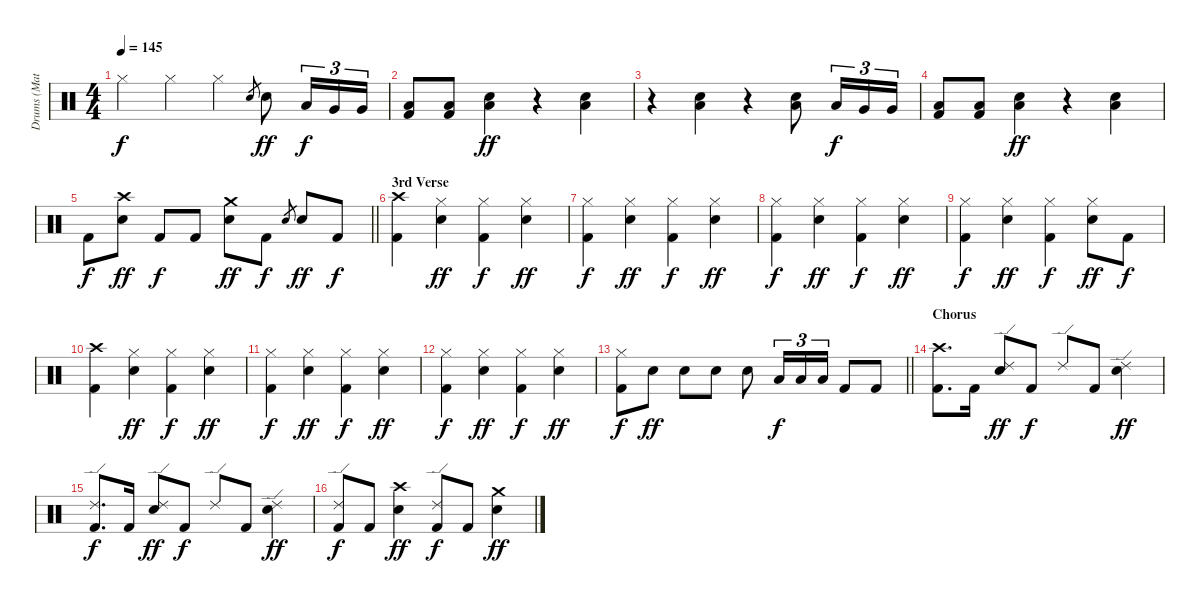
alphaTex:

\track ("Drums (Matt)" "Drums (Mat") {instrument percussion}
\staff {score}
\articulation defaults
\ts (4 4)
\tempo 145
\clef neutral
\ks c "Hi-Hat (closed)".4{dy f} "Hi-Hat (closed)".4 "Hi-Hat (closed)".4 "Snare (hit) 2".8{gr} "Snare (hit) 2".8{dy ff} "Low Tom (hit)".16{tu (3 2) dy f} "Very Low Tom (hit)".16{tu (3 2)} "Very Low Tom (hit)".16{tu (3 2)}
|
("Low Floor Tom (hit)" "Kick (hit) 2").8 ("Low Floor Tom (hit)" "Kick (hit) 2").8 ("Low Floor Tom (hit)" "Snare (hit) 2").4{dy ff} r.4 ("Low Floor Tom (hit)" "Snare (hit) 2").4 |
r.4 ("Low Floor Tom (hit)" "Snare (hit) 2").4 r.4 ("Low Floor Tom (hit)" "Snare (hit) 2").8 "Low Tom (hit)".16{tu (3 2) dy f} "Very Low Tom (hit)".16{tu (3 2)} "Very Low Tom (hit)".16{tu (3 2)} |
("Low Floor Tom (hit)" "Kick (hit) 2").8 ("Low Floor Tom (hit)" "Kick (hit) 2").8 ("Low Floor Tom (hit)" "Snare (hit) 2").4{dy ff} r.4 ("Low Floor Tom (hit)" "Snare (hit) 2").4 |
\barLineRight lightlight "Kick (hit) 2".8{dy f}
("Crash high (hit)" "Snare (hit) 2").8{dy ff} "Kick (hit) 2".8{dy f} "Kick (hit) 2".8 ("Crash medium (hit)" "Snare (hit) 2").8{dy ff} "Kick (hit) 2".8{dy f} "Snare (hit) 2".8{gr} "Snare (hit) 2".8{dy ff} "Kick (hit) 2".8{dy f} |
\section ("" "3rd Verse")
("Crash high (hit)" "Kick (hit) 2").4 ("Hi-Hat (closed)" "Snare (hit) 2").4{dy ff} ("Hi-Hat (closed)" "Kick (hit) 2").4{dy f} ("Hi-Hat (closed)" "Snare (hit) 2").4{dy ff} |
("Hi-Hat (closed)" "Kick (hit) 2").4{dy f} ("Hi-Hat (closed)" "Snare (hit) 2").4{dy ff} ("Hi-Hat (closed)" "Kick (hit) 2").4{dy f} ("Hi-Hat (closed)" "Snare (hit) 2").4{dy ff} |
("Hi-Hat (closed)" "Kick (hit) 2").4{dy f} ("Hi-Hat (closed)" "Snare (hit) 2").4{dy ff} ("Hi-Hat (closed)" "Kick (hit) 2").4{dy f} ("Hi-Hat (closed)" "Snare (hit) 2").4{dy ff} |
("Hi-Hat (closed)" "Kick (hit) 2").4{dy f} ("Hi-Hat (closed)" "Snare (hit) 2").4{dy ff} ("Hi-Hat (closed)" "Kick (hit) 2").4{dy f} ("Hi-Hat (closed)" "Snare (hit) 2").8{dy ff} "Kick (hit) 2".8{dy f} |
("Crash high (hit)" "Kick (hit) 2").4 ("Hi-Hat (closed)" "Snare (hit) 2").4{dy ff} ("Hi-Hat (closed)" "Kick (hit) 2").4{dy f} ("Hi-Hat (closed)" "Snare (hit) 2").4{dy ff} |
("Hi-Hat (closed)" "Kick (hit) 2").4{dy f} ("Hi-Hat (closed)" "Snare (hit) 2").4{dy ff} ("Hi-Hat (closed)" "Kick (hit) 2").4{dy f} ("Hi-Hat (closed)" "Snare (hit) 2").4{dy ff} |
("Hi-Hat (closed)" "Kick (hit) 2").4{dy f} ("Hi-Hat (closed)" "Snare (hit) 2").4{dy ff} ("Hi-Hat (closed)" "Kick (hit) 2").4{dy f} ("Hi-Hat (closed)" "Snare (hit) 2").4{dy ff} |
\barLineRight lightlight
("Hi-Hat (closed)" "Kick (hit) 2").8{dy f} "Snare (hit) 2".8{dy ff} "Snare (hit) 2".8 "Snare (hit) 2".8 "Snare (hit) 2".8 "Low Tom (hit)".16{tu (3 2) dy f} "Low Tom (hit)".16{tu (3 2)} "Low Tom (hit)".16{tu (3 2)} "Kick (hit) 2".8 "Kick (hit) 2".8 |
\section ("" "Chorus")
("Crash high (hit)" "Kick (hit) 2").8{d} "Kick (hit) 2".16 ("Ride (edge) 2" "Snare (hit) 2").8{dy ff} "Kick (hit) 2".8{dy f} "Ride (edge) 2".8 "Kick (hit) 2".8 ("Ride (edge) 2" "Snare (hit) 2").4{dy ff} |
("Ride (edge) 2" "Kick (hit) 2").8{d dy f} "Kick (hit) 2".16 ("Ride (edge) 2" "Snare (hit) 2").8{dy ff} "Kick (hit) 2".8{dy f} "Ride (edge) 2".8 "Kick (hit) 2".8 ("Ride (edge) 2" "Snare (hit) 2").4{dy ff} |
("Ride (edge) 2" "Kick (hit) 2").8{dy f} "Kick (hit) 2".8 ("Crash high (hit)" "Snare (hit) 2").4{dy ff} ("Ride (edge) 2" "Kick (hit) 2").8{dy f} "Kick (hit) 2".8 ("Crash medium (hit)" "Snare (hit) 2").4{dy ff}
